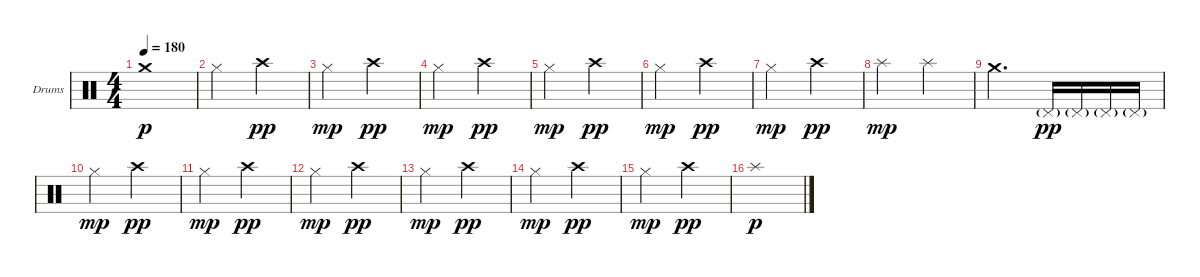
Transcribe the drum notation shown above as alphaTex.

\bracketExtendMode groupsimilarinstruments
\firstSystemTrackNameOrientation horizontal
\otherSystemsTrackNameOrientation horizontal
\track ("Drumkit" "Drums") {instrument percussion}
\staff {score}
\articulation defaults
\ts (4 4)
\tempo 180
\clef neutral
\scale
0.333333
\ks c "Crash medium (hit)".1{dy p}
|
\scale
0.333333 "Hi-Hat (closed)".2 "Crash high (hit)".2{dy pp} |
\scale
0.333333 "Hi-Hat (closed)".2{dy mp} "Crash high (hit)".2{dy pp} |
\scale
0.333333 "Hi-Hat (closed)".2{dy mp} "Crash high (hit)".2{dy pp} |
\scale
0.333333 "Hi-Hat (closed)".2{dy mp} "Crash high (hit)".2{dy pp} |
\scale
0.333333 "Hi-Hat (closed)".2{dy mp} "Crash high (hit)".2{dy pp} |
\scale
0.333333 "Hi-Hat (closed)".2{dy mp} "Crash high (hit)".2{dy pp} |
\scale
0.333333 "Splash (hit)".2{dy mp} "Splash (hit)".2 |
\scale
0.333333 "Crash medium (hit)".2{d} "Pedal Hi-Hat (hit)"{g}.16{dy pp} "Pedal Hi-Hat (hit)"{g}.16 "Pedal Hi-Hat (hit)"{g}.16 "Pedal Hi-Hat (hit)"{g}.16 |
\scale
0.333333 "Hi-Hat (closed)".2{dy mp} "Crash high (hit)".2{dy pp} |
\scale
0.333333 "Hi-Hat (closed)".2{dy mp} "Crash high (hit)".2{dy pp} |
\scale
0.333333 "Hi-Hat (closed)".2{dy mp} "Crash high (hit)".2{dy pp} |
\scale
0.333333 "Hi-Hat (closed)".2{dy mp} "Crash high (hit)".2{dy pp} |
\scale
0.333333 "Hi-Hat (closed)".2{dy mp} "Crash high (hit)".2{dy pp} |
\scale
0.333333 "Hi-Hat (closed)".2{dy mp} "Crash high (hit)".2{dy pp} |
\scale
0.333333 "Splash (hit)".1{dy p}
